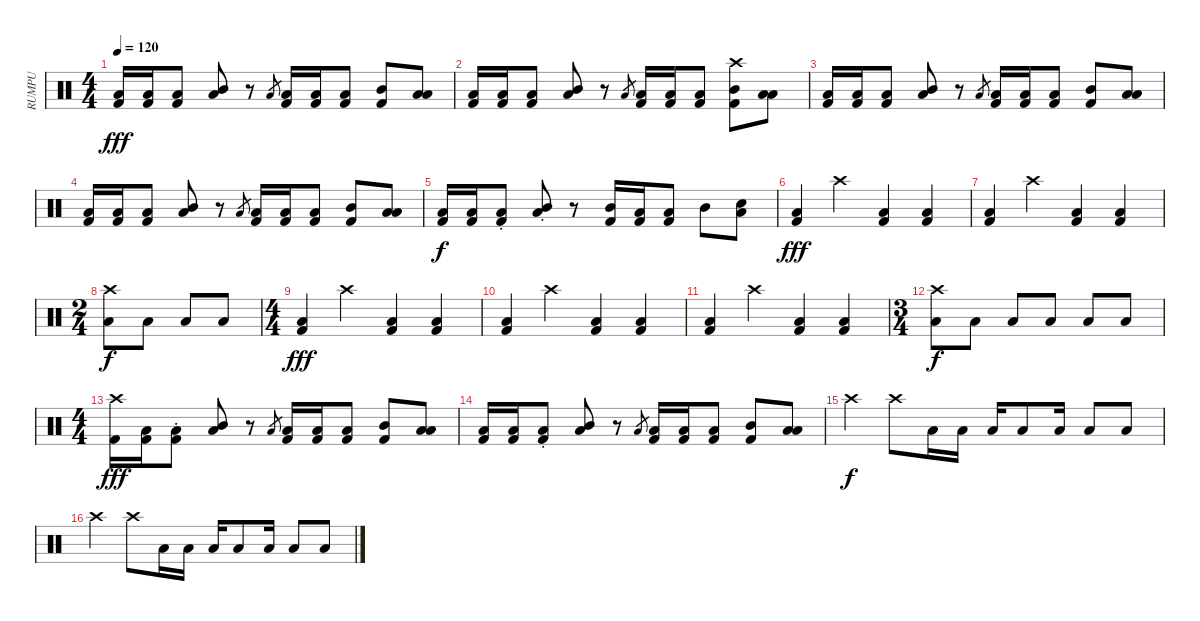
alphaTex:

\track ("RUMPU" "RUMPU") {instrument percussion}
\staff {score}
\articulation defaults
\ts (4 4)
\tempo 120
\clef neutral
\ks c
("Low Floor Tom (hit)" "Kick (hit) 2").16{dy fff} ("Low Floor Tom (hit)" "Kick (hit) 2").16 ("Low Floor Tom (hit)" "Kick (hit) 2").8 ("Low Floor Tom (hit)" "Mid Tom (hit)").8 r.8 "Low Floor Tom (hit)".8{gr} ("Low Floor Tom (hit)" "Kick (hit) 2").16 ("Low Floor Tom (hit)" "Kick (hit) 2").16 ("Low Floor Tom (hit)" "Kick (hit) 2").8 ("Mid Tom (hit)" "Kick (hit) 2").8 ("Low Floor Tom (hit)" "Low Tom (hit)").8 |
("Low Floor Tom (hit)" "Kick (hit) 2").16 ("Low Floor Tom (hit)" "Kick (hit) 2").16 ("Low Floor Tom (hit)" "Kick (hit) 2").8 ("Low Floor Tom (hit)" "Mid Tom (hit)").8 r.8 "Low Floor Tom (hit)".8{gr} ("Low Floor Tom (hit)" "Kick (hit) 2").16 ("Low Floor Tom (hit)" "Kick (hit) 2").16 ("Low Floor Tom (hit)" "Kick (hit) 2").8 ("Crash high (hit)" "Mid Tom (hit)" "Kick (hit) 2").8 ("Low Floor Tom (hit)" "Low Tom (hit)").8 |
("Low Floor Tom (hit)" "Kick (hit) 2").16 ("Low Floor Tom (hit)" "Kick (hit) 2").16 ("Low Floor Tom (hit)" "Kick (hit) 2").8 ("Low Floor Tom (hit)" "Mid Tom (hit)").8 r.8 "Low Floor Tom (hit)".8{gr} ("Low Floor Tom (hit)" "Kick (hit) 2").16 ("Low Floor Tom (hit)" "Kick (hit) 2").16 ("Low Floor Tom (hit)" "Kick (hit) 2").8 ("Mid Tom (hit)" "Kick (hit) 2").8 ("Low Floor Tom (hit)" "Low Tom (hit)").8 |
("Low Floor Tom (hit)" "Kick (hit) 2").16 ("Low Floor Tom (hit)" "Kick (hit) 2").16 ("Low Floor Tom (hit)" "Kick (hit) 2").8 ("Low Floor Tom (hit)" "Mid Tom (hit)").8 r.8 "Low Floor Tom (hit)".8{gr} ("Low Floor Tom (hit)" "Kick (hit) 2").16 ("Low Floor Tom (hit)" "Kick (hit) 2").16 ("Low Floor Tom (hit)" "Kick (hit) 2").8 ("Mid Tom (hit)" "Kick (hit) 2").8 ("Low Floor Tom (hit)" "Low Tom (hit)").8 |
("Low Tom (hit)" "Kick (hit) 2").16{dy f} ("Low Floor Tom (hit)" "Kick (hit) 2").16 ("Low Floor Tom (hit)" "Kick (hit) 2"{st}).8 ("Mid Tom (hit)"{st} "Low Floor Tom (hit)").8 r.8 ("Mid Tom (hit)" "Kick (hit) 2").16 ("Low Tom (hit)" "Kick (hit) 2").16 ("Low Floor Tom (hit)" "Kick (hit) 2").8 "Mid Tom (hit)".8 ("Low Tom (hit)" "Electric Snare (hit)").8 |
("Low Floor Tom (hit)" "Kick (hit) 2").4{dy fff} "Crash high (hit)".4 ("Low Floor Tom (hit)" "Kick (hit) 2").4 ("Low Floor Tom (hit)" "Kick (hit) 2").4 |
("Low Floor Tom (hit)" "Kick (hit) 2").4 "Crash high (hit)".4 ("Low Floor Tom (hit)" "Kick (hit) 2").4 ("Low Floor Tom (hit)" "Kick (hit) 2").4 |
\ts (2 4)
("Low Floor Tom (hit)" "Crash high (hit)").8{dy f} "Low Floor Tom (hit)".8 "Low Floor Tom (hit)".8 "Low Floor Tom (hit)".8 |
\ts (4 4)
("Low Floor Tom (hit)" "Kick (hit) 2").4{dy fff} "Crash high (hit)".4 ("Low Floor Tom (hit)" "Kick (hit) 2").4 ("Low Floor Tom (hit)" "Kick (hit) 2").4 |
("Low Floor Tom (hit)" "Kick (hit) 2").4 "Crash high (hit)".4 ("Low Floor Tom (hit)" "Kick (hit) 2").4 ("Low Floor Tom (hit)" "Kick (hit) 2").4 |
("Low Floor Tom (hit)" "Kick (hit) 2").4 "Crash high (hit)".4 ("Low Floor Tom (hit)" "Kick (hit) 2").4 ("Low Floor Tom (hit)" "Kick (hit) 2").4 |
\ts (3 4)
("Crash high (hit)" "Low Floor Tom (hit)").8{dy f} "Low Floor Tom (hit)".8 "Low Floor Tom (hit)".8 "Low Floor Tom (hit)".8 "Low Floor Tom (hit)".8 "Low Floor Tom (hit)".8 |
\ts (4 4)
("Crash high (hit)" "Kick (hit) 2").16{dy fff} ("Low Floor Tom (hit)" "Kick (hit) 2").16 ("Low Floor Tom (hit)" "Kick (hit) 2"{st}).8 ("Low Floor Tom (hit)" "Mid Tom (hit)").8 r.8 "Low Floor Tom (hit)".8{gr} ("Low Floor Tom (hit)" "Kick (hit) 2").16 ("Low Floor Tom (hit)" "Kick (hit) 2").16 ("Low Floor Tom (hit)" "Kick (hit) 2").8 ("Mid Tom (hit)" "Kick (hit) 2").8 ("Low Floor Tom (hit)" "Low Tom (hit)").8 |
("Low Floor Tom (hit)" "Kick (hit) 2").16 ("Low Floor Tom (hit)" "Kick (hit) 2").16 ("Low Floor Tom (hit)" "Kick (hit) 2"{st}).8 ("Low Floor Tom (hit)" "Mid Tom (hit)").8 r.8 "Low Floor Tom (hit)".8{gr} ("Low Floor Tom (hit)" "Kick (hit) 2").16 ("Low Floor Tom (hit)" "Kick (hit) 2").16 ("Low Floor Tom (hit)" "Kick (hit) 2").8 ("Mid Tom (hit)" "Kick (hit) 2").8 ("Low Floor Tom (hit)" "Low Tom (hit)").8 |
"Crash high (hit)".4{dy f} "Crash high (hit)".8 "Low Floor Tom (hit)".16 "Low Floor Tom (hit)".16 "Low Floor Tom (hit)".16 "Low Floor Tom (hit)".8 "Low Floor Tom (hit)".16 "Low Floor Tom (hit)".8 "Low Floor Tom (hit)".8 |
"Crash high (hit)".4 "Crash high (hit)".8 "Low Floor Tom (hit)".16 "Low Floor Tom (hit)".16 "Low Floor Tom (hit)".16 "Low Floor Tom (hit)".8 "Low Floor Tom (hit)".16 "Low Floor Tom (hit)".8 "Low Floor Tom (hit)".8
